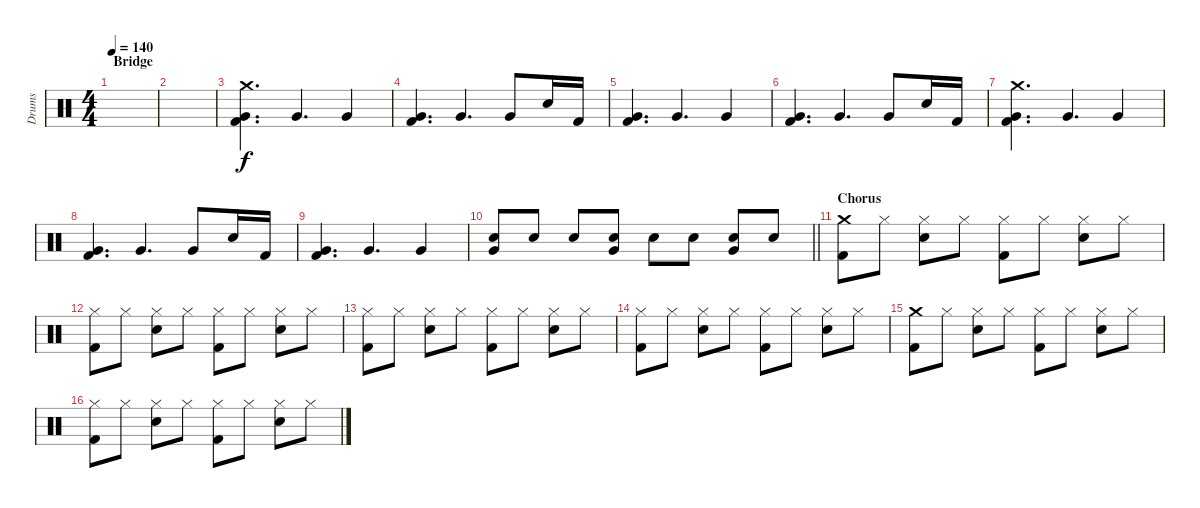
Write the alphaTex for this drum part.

\track ("Drums" "Drums") {instrument percussion}
\staff {score}
\articulation defaults
\ts (4 4)
\section ("" "Bridge")
\tempo 140
\clef neutral
\ks c
|
|
("Crash medium (hit)" "Very Low Tom (hit)" "Kick (hit) 2").4{d} "Very Low Tom (hit)".4{d} "Very Low Tom (hit)".4 |
("Very Low Tom (hit)" "Kick (hit) 2").4{d} "Very Low Tom (hit)".4{d} "Very Low Tom (hit)".8 "Electric Snare (hit)".16 "Kick (hit) 2".16 |
("Very Low Tom (hit)" "Kick (hit) 2").4{d} "Very Low Tom (hit)".4{d} "Very Low Tom (hit)".4 |
("Very Low Tom (hit)" "Kick (hit) 2").4{d} "Very Low Tom (hit)".4{d} "Very Low Tom (hit)".8 "Electric Snare (hit)".16 "Kick (hit) 2".16 |
("Crash medium (hit)" "Very Low Tom (hit)" "Kick (hit) 2").4{d} "Very Low Tom (hit)".4{d} "Very Low Tom (hit)".4 |
("Very Low Tom (hit)" "Kick (hit) 2").4{d} "Very Low Tom (hit)".4{d} "Very Low Tom (hit)".8 "Electric Snare (hit)".16 "Kick (hit) 2".16 |
("Very Low Tom (hit)" "Kick (hit) 2").4{d} "Very Low Tom (hit)".4{d} "Very Low Tom (hit)".4 |
\barLineRight lightlight
("Very Low Tom (hit)" "Electric Snare (hit)").8 "Electric Snare (hit)".8 "Electric Snare (hit)".8 ("Very Low Tom (hit)" "Electric Snare (hit)").8 "Electric Snare (hit)".8 "Electric Snare (hit)".8 ("Very Low Tom (hit)" "Electric Snare (hit)").8 "Electric Snare (hit)".8 |
\section ("" "Chorus")
("Crash medium (hit)" "Kick (hit) 2").8 "Hi-Hat (closed)".8 ("Hi-Hat (closed)" "Electric Snare (hit)").8 "Hi-Hat (closed)".8 ("Hi-Hat (closed)" "Kick (hit) 2").8 "Hi-Hat (closed)".8 ("Hi-Hat (closed)" "Electric Snare (hit)").8 "Hi-Hat (closed)".8 |
("Hi-Hat (closed)" "Kick (hit) 2").8 "Hi-Hat (closed)".8 ("Hi-Hat (closed)" "Electric Snare (hit)").8 "Hi-Hat (closed)".8 ("Hi-Hat (closed)" "Kick (hit) 2").8 "Hi-Hat (closed)".8 ("Hi-Hat (closed)" "Electric Snare (hit)").8 "Hi-Hat (closed)".8 |
("Hi-Hat (closed)" "Kick (hit) 2").8 "Hi-Hat (closed)".8 ("Hi-Hat (closed)" "Electric Snare (hit)").8 "Hi-Hat (closed)".8 ("Hi-Hat (closed)" "Kick (hit) 2").8 "Hi-Hat (closed)".8 ("Hi-Hat (closed)" "Electric Snare (hit)").8 "Hi-Hat (closed)".8 |
("Hi-Hat (closed)" "Kick (hit) 2").8 "Hi-Hat (closed)".8 ("Hi-Hat (closed)" "Electric Snare (hit)").8 "Hi-Hat (closed)".8 ("Hi-Hat (closed)" "Kick (hit) 2").8 "Hi-Hat (closed)".8 ("Hi-Hat (closed)" "Electric Snare (hit)").8 "Hi-Hat (closed)".8 |
("Crash medium (hit)" "Kick (hit) 2").8 "Hi-Hat (closed)".8 ("Hi-Hat (closed)" "Electric Snare (hit)").8 "Hi-Hat (closed)".8 ("Hi-Hat (closed)" "Kick (hit) 2").8 "Hi-Hat (closed)".8 ("Hi-Hat (closed)" "Electric Snare (hit)").8 "Hi-Hat (closed)".8 |
("Hi-Hat (closed)" "Kick (hit) 2").8 "Hi-Hat (closed)".8 ("Hi-Hat (closed)" "Electric Snare (hit)").8 "Hi-Hat (closed)".8 ("Hi-Hat (closed)" "Kick (hit) 2").8 "Hi-Hat (closed)".8 ("Hi-Hat (closed)" "Electric Snare (hit)").8 "Hi-Hat (closed)".8
